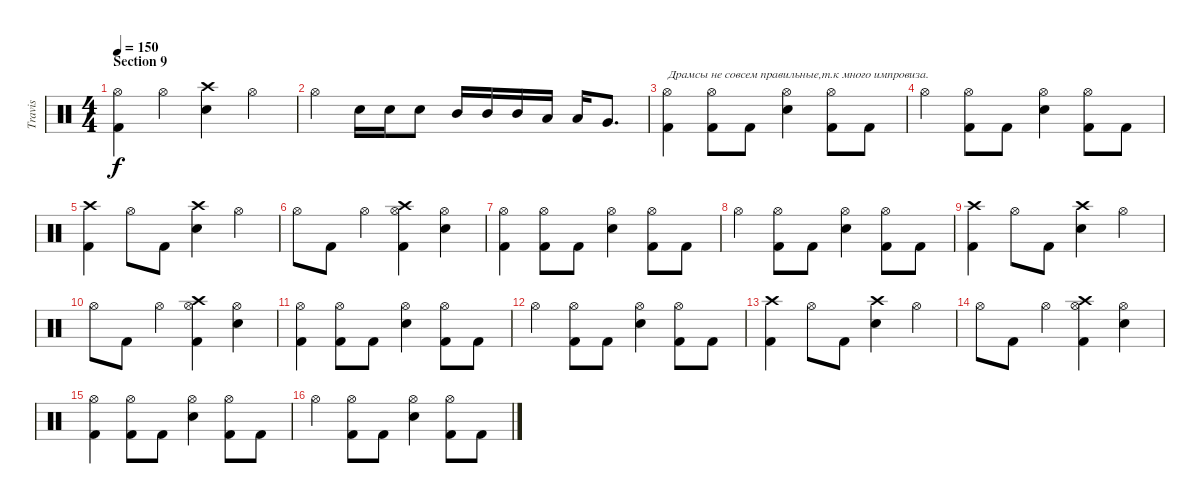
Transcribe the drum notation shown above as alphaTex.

\track ("Travis" "Travis") {instrument percussion}
\staff {score}
\articulation defaults
\ts (4 4)
\section ("" "Section 9")
\tempo 150
\clef neutral
\ks c
("Hi-Hat (open)" "Kick (hit) 2").4{dy f} "Hi-Hat (open)".4 ("Crash high (hit)" "Snare (hit) 2").4 "Hi-Hat (open)".4 |
"Hi-Hat (open)".4 "Snare (hit) 2".16 "Snare (hit) 2".16 "Snare (hit) 2".8 "Mid Tom (hit)".16 "Mid Tom (hit)".16 "Mid Tom (hit)".16 "Low Tom (hit)".16 "Low Tom (hit)".16 "Very Low Tom (hit)".8{d} |
("Hi-Hat (open)" "Kick (hit) 2").4{txt "Драмсы не совсем правильные,т.к много импровиза."} ("Hi-Hat (open)" "Kick (hit) 2").8 "Kick (hit) 2".8 ("Hi-Hat (open)" "Snare (hit) 2").4 ("Hi-Hat (open)" "Kick (hit) 2").8 "Kick (hit) 2".8 |
"Hi-Hat (open)".4 ("Hi-Hat (open)" "Kick (hit) 2").8 "Kick (hit) 2".8 ("Hi-Hat (open)" "Snare (hit) 2").4 ("Hi-Hat (open)" "Kick (hit) 2").8 "Kick (hit) 2".8 |
("Crash high (hit)" "Kick (hit) 2").4 "Hi-Hat (open)".8 "Kick (hit) 2".8 ("Crash high (hit)" "Snare (hit) 2").4 "Hi-Hat (open)".4 |
"Hi-Hat (open)".8 "Kick (hit) 2".8 "Hi-Hat (open)".4 ("Crash high (hit)" "Hi-Hat (open)" "Kick (hit) 2").4 ("Hi-Hat (open)" "Snare (hit) 2").4 |
("Hi-Hat (open)" "Kick (hit) 2").4 ("Hi-Hat (open)" "Kick (hit) 2").8 "Kick (hit) 2".8 ("Hi-Hat (open)" "Snare (hit) 2").4 ("Hi-Hat (open)" "Kick (hit) 2").8 "Kick (hit) 2".8 |
"Hi-Hat (open)".4 ("Hi-Hat (open)" "Kick (hit) 2").8 "Kick (hit) 2".8 ("Hi-Hat (open)" "Snare (hit) 2").4 ("Hi-Hat (open)" "Kick (hit) 2").8 "Kick (hit) 2".8 |
("Crash high (hit)" "Kick (hit) 2").4 "Hi-Hat (open)".8 "Kick (hit) 2".8 ("Crash high (hit)" "Snare (hit) 2").4 "Hi-Hat (open)".4 |
"Hi-Hat (open)".8 "Kick (hit) 2".8 "Hi-Hat (open)".4 ("Crash high (hit)" "Hi-Hat (open)" "Kick (hit) 2").4 ("Hi-Hat (open)" "Snare (hit) 2").4 |
("Hi-Hat (open)" "Kick (hit) 2").4 ("Hi-Hat (open)" "Kick (hit) 2").8 "Kick (hit) 2".8 ("Hi-Hat (open)" "Snare (hit) 2").4 ("Hi-Hat (open)" "Kick (hit) 2").8 "Kick (hit) 2".8 |
"Hi-Hat (open)".4 ("Hi-Hat (open)" "Kick (hit) 2").8 "Kick (hit) 2".8 ("Hi-Hat (open)" "Snare (hit) 2").4 ("Hi-Hat (open)" "Kick (hit) 2").8 "Kick (hit) 2".8 |
("Crash high (hit)" "Kick (hit) 2").4 "Hi-Hat (open)".8 "Kick (hit) 2".8 ("Crash high (hit)" "Snare (hit) 2").4 "Hi-Hat (open)".4 |
"Hi-Hat (open)".8 "Kick (hit) 2".8 "Hi-Hat (open)".4 ("Crash high (hit)" "Hi-Hat (open)" "Kick (hit) 2").4 ("Hi-Hat (open)" "Snare (hit) 2").4 |
("Hi-Hat (open)" "Kick (hit) 2").4 ("Hi-Hat (open)" "Kick (hit) 2").8 "Kick (hit) 2".8 ("Hi-Hat (open)" "Snare (hit) 2").4 ("Hi-Hat (open)" "Kick (hit) 2").8 "Kick (hit) 2".8 |
"Hi-Hat (open)".4 ("Hi-Hat (open)" "Kick (hit) 2").8 "Kick (hit) 2".8 ("Hi-Hat (open)" "Snare (hit) 2").4 ("Hi-Hat (open)" "Kick (hit) 2").8 "Kick (hit) 2".8
